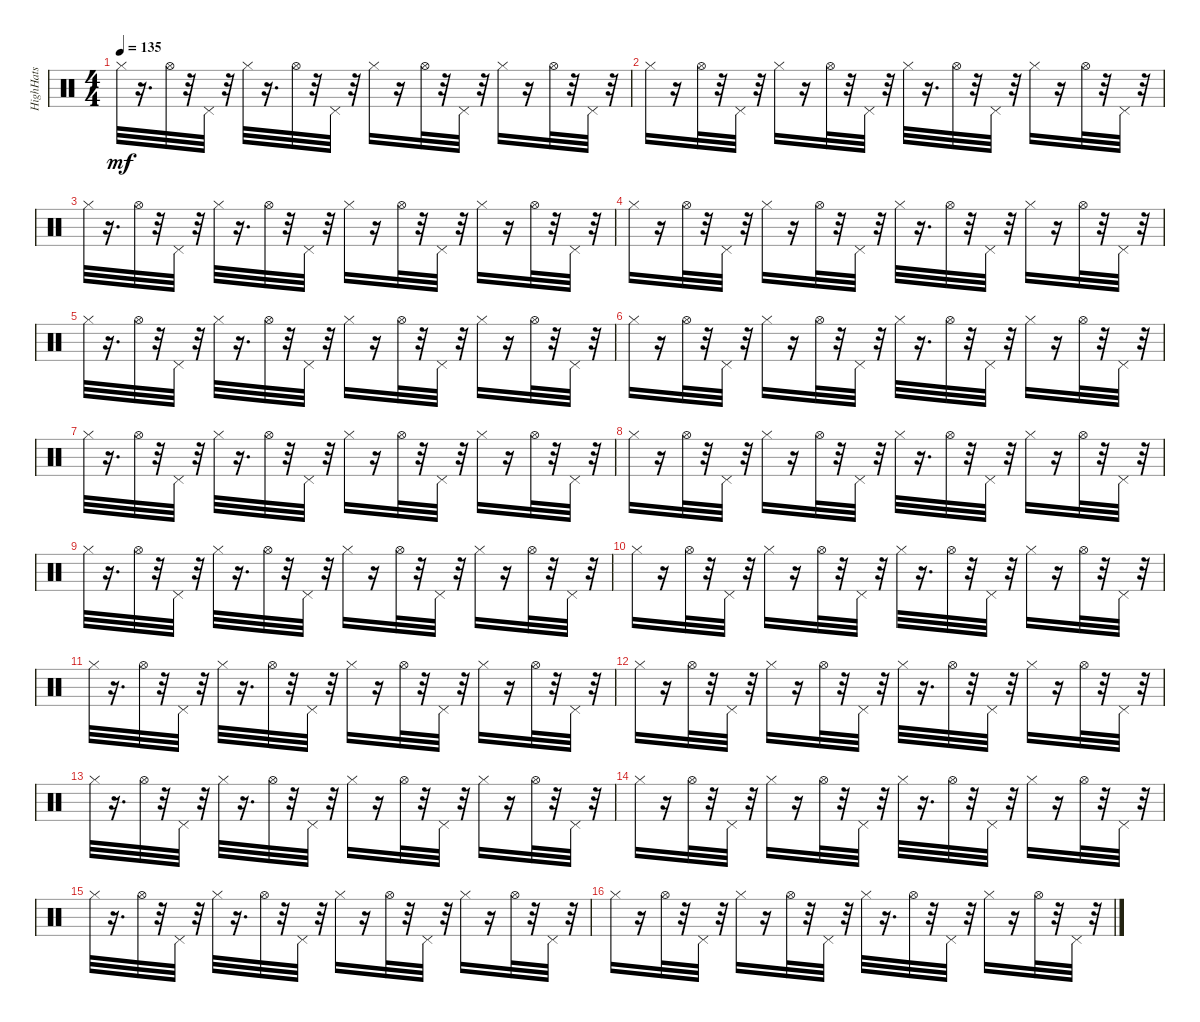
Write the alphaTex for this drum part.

\track ("HighHats" "HighHats") {instrument percussion}
\staff {score}
\articulation defaults
\ts (4 4)
\tempo 135
\clef neutral
\ks c "Hi-Hat (closed)".32{dy mf}
r.16{d} "Hi-Hat (open)".32 r.32 "Pedal Hi-Hat (hit)".32 r.32 "Hi-Hat (closed)".32 r.16{d} "Hi-Hat (open)".32 r.32 "Pedal Hi-Hat (hit)".32 r.32 "Hi-Hat (closed)".16 r.16 "Hi-Hat (open)".32 r.32 "Pedal Hi-Hat (hit)".32 r.32 "Hi-Hat (closed)".16 r.16 "Hi-Hat (open)".32 r.32 "Pedal Hi-Hat (hit)".32 r.32 |
"Hi-Hat (closed)".16 r.16 "Hi-Hat (open)".32 r.32 "Pedal Hi-Hat (hit)".32 r.32 "Hi-Hat (closed)".16 r.16 "Hi-Hat (open)".32 r.32 "Pedal Hi-Hat (hit)".32 r.32 "Hi-Hat (closed)".32 r.16{d} "Hi-Hat (open)".32 r.32 "Pedal Hi-Hat (hit)".32 r.32 "Hi-Hat (closed)".16 r.16 "Hi-Hat (open)".32 r.32 "Pedal Hi-Hat (hit)".32 r.32 |
"Hi-Hat (closed)".32 r.16{d} "Hi-Hat (open)".32 r.32 "Pedal Hi-Hat (hit)".32 r.32 "Hi-Hat (closed)".32 r.16{d} "Hi-Hat (open)".32 r.32 "Pedal Hi-Hat (hit)".32 r.32 "Hi-Hat (closed)".16 r.16 "Hi-Hat (open)".32 r.32 "Pedal Hi-Hat (hit)".32 r.32 "Hi-Hat (closed)".16 r.16 "Hi-Hat (open)".32 r.32 "Pedal Hi-Hat (hit)".32 r.32 |
"Hi-Hat (closed)".16 r.16 "Hi-Hat (open)".32 r.32 "Pedal Hi-Hat (hit)".32 r.32 "Hi-Hat (closed)".16 r.16 "Hi-Hat (open)".32 r.32 "Pedal Hi-Hat (hit)".32 r.32 "Hi-Hat (closed)".32 r.16{d} "Hi-Hat (open)".32 r.32 "Pedal Hi-Hat (hit)".32 r.32 "Hi-Hat (closed)".16 r.16 "Hi-Hat (open)".32 r.32 "Pedal Hi-Hat (hit)".32 r.32 |
"Hi-Hat (closed)".32 r.16{d} "Hi-Hat (open)".32 r.32 "Pedal Hi-Hat (hit)".32 r.32 "Hi-Hat (closed)".32 r.16{d} "Hi-Hat (open)".32 r.32 "Pedal Hi-Hat (hit)".32 r.32 "Hi-Hat (closed)".16 r.16 "Hi-Hat (open)".32 r.32 "Pedal Hi-Hat (hit)".32 r.32 "Hi-Hat (closed)".16 r.16 "Hi-Hat (open)".32 r.32 "Pedal Hi-Hat (hit)".32 r.32 |
"Hi-Hat (closed)".16 r.16 "Hi-Hat (open)".32 r.32 "Pedal Hi-Hat (hit)".32 r.32 "Hi-Hat (closed)".16 r.16 "Hi-Hat (open)".32 r.32 "Pedal Hi-Hat (hit)".32 r.32 "Hi-Hat (closed)".32 r.16{d} "Hi-Hat (open)".32 r.32 "Pedal Hi-Hat (hit)".32 r.32 "Hi-Hat (closed)".16 r.16 "Hi-Hat (open)".32 r.32 "Pedal Hi-Hat (hit)".32 r.32 |
"Hi-Hat (closed)".32 r.16{d} "Hi-Hat (open)".32 r.32 "Pedal Hi-Hat (hit)".32 r.32 "Hi-Hat (closed)".32 r.16{d} "Hi-Hat (open)".32 r.32 "Pedal Hi-Hat (hit)".32 r.32 "Hi-Hat (closed)".16 r.16 "Hi-Hat (open)".32 r.32 "Pedal Hi-Hat (hit)".32 r.32 "Hi-Hat (closed)".16 r.16 "Hi-Hat (open)".32 r.32 "Pedal Hi-Hat (hit)".32 r.32 |
"Hi-Hat (closed)".16 r.16 "Hi-Hat (open)".32 r.32 "Pedal Hi-Hat (hit)".32 r.32 "Hi-Hat (closed)".16 r.16 "Hi-Hat (open)".32 r.32 "Pedal Hi-Hat (hit)".32 r.32 "Hi-Hat (closed)".32 r.16{d} "Hi-Hat (open)".32 r.32 "Pedal Hi-Hat (hit)".32 r.32 "Hi-Hat (closed)".16 r.16 "Hi-Hat (open)".32 r.32 "Pedal Hi-Hat (hit)".32 r.32 |
"Hi-Hat (closed)".32 r.16{d} "Hi-Hat (open)".32 r.32 "Pedal Hi-Hat (hit)".32 r.32 "Hi-Hat (closed)".32 r.16{d} "Hi-Hat (open)".32 r.32 "Pedal Hi-Hat (hit)".32 r.32 "Hi-Hat (closed)".16 r.16 "Hi-Hat (open)".32 r.32 "Pedal Hi-Hat (hit)".32 r.32 "Hi-Hat (closed)".16 r.16 "Hi-Hat (open)".32 r.32 "Pedal Hi-Hat (hit)".32 r.32 |
"Hi-Hat (closed)".16 r.16 "Hi-Hat (open)".32 r.32 "Pedal Hi-Hat (hit)".32 r.32 "Hi-Hat (closed)".16 r.16 "Hi-Hat (open)".32 r.32 "Pedal Hi-Hat (hit)".32 r.32 "Hi-Hat (closed)".32 r.16{d} "Hi-Hat (open)".32 r.32 "Pedal Hi-Hat (hit)".32 r.32 "Hi-Hat (closed)".16 r.16 "Hi-Hat (open)".32 r.32 "Pedal Hi-Hat (hit)".32 r.32 |
"Hi-Hat (closed)".32 r.16{d} "Hi-Hat (open)".32 r.32 "Pedal Hi-Hat (hit)".32 r.32 "Hi-Hat (closed)".32 r.16{d} "Hi-Hat (open)".32 r.32 "Pedal Hi-Hat (hit)".32 r.32 "Hi-Hat (closed)".16 r.16 "Hi-Hat (open)".32 r.32 "Pedal Hi-Hat (hit)".32 r.32 "Hi-Hat (closed)".16 r.16 "Hi-Hat (open)".32 r.32 "Pedal Hi-Hat (hit)".32 r.32 |
"Hi-Hat (closed)".16 r.16 "Hi-Hat (open)".32 r.32 "Pedal Hi-Hat (hit)".32 r.32 "Hi-Hat (closed)".16 r.16 "Hi-Hat (open)".32 r.32 "Pedal Hi-Hat (hit)".32 r.32 "Hi-Hat (closed)".32 r.16{d} "Hi-Hat (open)".32 r.32 "Pedal Hi-Hat (hit)".32 r.32 "Hi-Hat (closed)".16 r.16 "Hi-Hat (open)".32 r.32 "Pedal Hi-Hat (hit)".32 r.32 |
"Hi-Hat (closed)".32 r.16{d} "Hi-Hat (open)".32 r.32 "Pedal Hi-Hat (hit)".32 r.32 "Hi-Hat (closed)".32 r.16{d} "Hi-Hat (open)".32 r.32 "Pedal Hi-Hat (hit)".32 r.32 "Hi-Hat (closed)".16 r.16 "Hi-Hat (open)".32 r.32 "Pedal Hi-Hat (hit)".32 r.32 "Hi-Hat (closed)".16 r.16 "Hi-Hat (open)".32 r.32 "Pedal Hi-Hat (hit)".32 r.32 |
"Hi-Hat (closed)".16 r.16 "Hi-Hat (open)".32 r.32 "Pedal Hi-Hat (hit)".32 r.32 "Hi-Hat (closed)".16 r.16 "Hi-Hat (open)".32 r.32 "Pedal Hi-Hat (hit)".32 r.32 "Hi-Hat (closed)".32 r.16{d} "Hi-Hat (open)".32 r.32 "Pedal Hi-Hat (hit)".32 r.32 "Hi-Hat (closed)".16 r.16 "Hi-Hat (open)".32 r.32 "Pedal Hi-Hat (hit)".32 r.32 |
"Hi-Hat (closed)".32 r.16{d} "Hi-Hat (open)".32 r.32 "Pedal Hi-Hat (hit)".32 r.32 "Hi-Hat (closed)".32 r.16{d} "Hi-Hat (open)".32 r.32 "Pedal Hi-Hat (hit)".32 r.32 "Hi-Hat (closed)".16 r.16 "Hi-Hat (open)".32 r.32 "Pedal Hi-Hat (hit)".32 r.32 "Hi-Hat (closed)".16 r.16 "Hi-Hat (open)".32 r.32 "Pedal Hi-Hat (hit)".32 r.32 |
"Hi-Hat (closed)".16 r.16 "Hi-Hat (open)".32 r.32 "Pedal Hi-Hat (hit)".32 r.32 "Hi-Hat (closed)".16 r.16 "Hi-Hat (open)".32 r.32 "Pedal Hi-Hat (hit)".32 r.32 "Hi-Hat (closed)".32 r.16{d} "Hi-Hat (open)".32 r.32 "Pedal Hi-Hat (hit)".32 r.32 "Hi-Hat (closed)".16 r.16 "Hi-Hat (open)".32 r.32 "Pedal Hi-Hat (hit)".32 r.32
